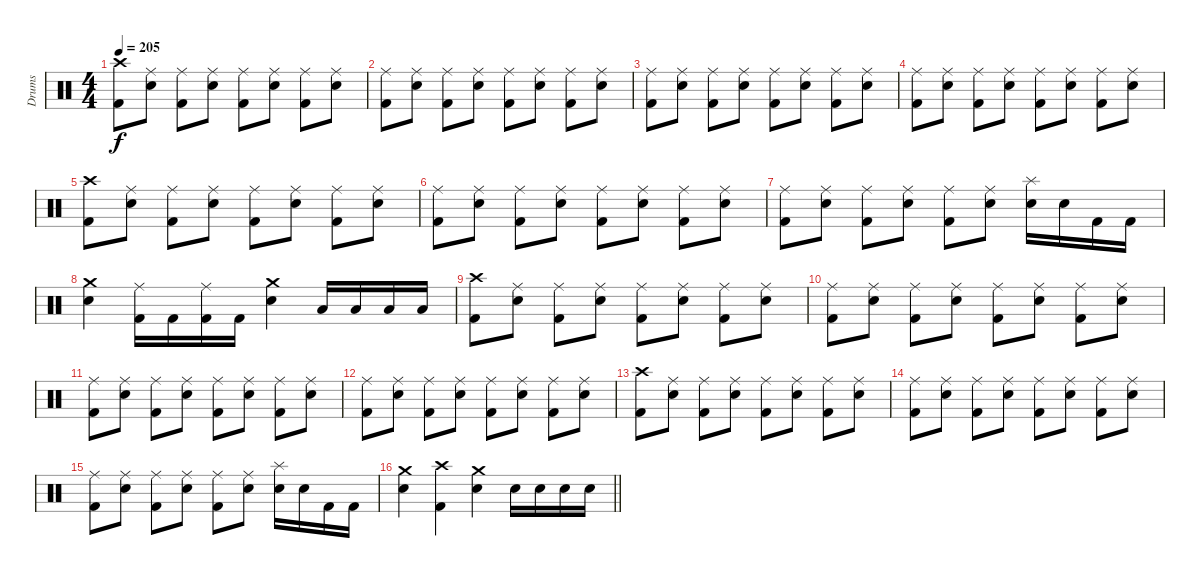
\track ("Drums" "Drums") {instrument percussion}
\staff {score}
\articulation defaults
\ts (4 4)
\tempo 205
\clef neutral
\ks c
("Crash high (hit)" "Kick (hit) 2").8{dy f} ("Ride (middle)" "Electric Snare (hit)").8 ("Ride (middle)" "Kick (hit) 2").8 ("Ride (middle)" "Electric Snare (hit)").8 ("Ride (middle)" "Kick (hit) 2").8 ("Ride (middle)" "Electric Snare (hit)").8 ("Ride (middle)" "Kick (hit) 2").8 ("Ride (middle)" "Electric Snare (hit)").8 |
("Ride (middle)" "Kick (hit) 2").8 ("Ride (middle)" "Electric Snare (hit)").8 ("Ride (middle)" "Kick (hit) 2").8 ("Ride (middle)" "Electric Snare (hit)").8 ("Ride (middle)" "Kick (hit) 2").8 ("Ride (middle)" "Electric Snare (hit)").8 ("Ride (middle)" "Kick (hit) 2").8 ("Ride (middle)" "Electric Snare (hit)").8 |
("Ride (middle)" "Kick (hit) 2").8 ("Ride (middle)" "Electric Snare (hit)").8 ("Ride (middle)" "Kick (hit) 2").8 ("Ride (middle)" "Electric Snare (hit)").8 ("Ride (middle)" "Kick (hit) 2").8 ("Ride (middle)" "Electric Snare (hit)").8 ("Ride (middle)" "Kick (hit) 2").8 ("Ride (middle)" "Electric Snare (hit)").8 |
("Ride (middle)" "Kick (hit) 2").8 ("Ride (middle)" "Electric Snare (hit)").8 ("Ride (middle)" "Kick (hit) 2").8 ("Ride (middle)" "Electric Snare (hit)").8 ("Ride (middle)" "Kick (hit) 2").8 ("Ride (middle)" "Electric Snare (hit)").8 ("Ride (middle)" "Kick (hit) 2").8 ("Ride (middle)" "Electric Snare (hit)").8 |
("Crash high (hit)" "Kick (hit) 2").8 ("Ride (middle)" "Electric Snare (hit)").8 ("Ride (middle)" "Kick (hit) 2").8 ("Ride (middle)" "Electric Snare (hit)").8 ("Ride (middle)" "Kick (hit) 2").8 ("Ride (middle)" "Electric Snare (hit)").8 ("Ride (middle)" "Kick (hit) 2").8 ("Ride (middle)" "Electric Snare (hit)").8 |
("Ride (middle)" "Kick (hit) 2").8 ("Ride (middle)" "Electric Snare (hit)").8 ("Ride (middle)" "Kick (hit) 2").8 ("Ride (middle)" "Electric Snare (hit)").8 ("Ride (middle)" "Kick (hit) 2").8 ("Ride (middle)" "Electric Snare (hit)").8 ("Ride (middle)" "Kick (hit) 2").8 ("Ride (middle)" "Electric Snare (hit)").8 |
("Ride (middle)" "Kick (hit) 2").8 ("Ride (middle)" "Electric Snare (hit)").8 ("Ride (middle)" "Kick (hit) 2").8 ("Ride (middle)" "Electric Snare (hit)").8 ("Ride (middle)" "Kick (hit) 2").8 ("Ride (middle)" "Electric Snare (hit)").8 ("Splash (hit)" "Electric Snare (hit)").16 "Electric Snare (hit)".16 "Kick (hit) 2".16 "Kick (hit) 2".16 |
("Crash medium (hit)" "Electric Snare (hit)").4 ("Ride (middle)" "Kick (hit) 2").16 "Kick (hit) 2".16 ("Ride (middle)" "Kick (hit) 2").16 "Kick (hit) 2".16 ("Crash medium (hit)" "Electric Snare (hit)").4 "Low Tom (hit)".16 "Low Tom (hit)".16 "Low Tom (hit)".16 "Low Tom (hit)".16 |
("Crash high (hit)" "Kick (hit) 2").8 ("Ride (middle)" "Electric Snare (hit)").8 ("Ride (middle)" "Kick (hit) 2").8 ("Ride (middle)" "Electric Snare (hit)").8 ("Ride (middle)" "Kick (hit) 2").8 ("Ride (middle)" "Electric Snare (hit)").8 ("Ride (middle)" "Kick (hit) 2").8 ("Ride (middle)" "Electric Snare (hit)").8 |
("Ride (middle)" "Kick (hit) 2").8 ("Ride (middle)" "Electric Snare (hit)").8 ("Ride (middle)" "Kick (hit) 2").8 ("Ride (middle)" "Electric Snare (hit)").8 ("Ride (middle)" "Kick (hit) 2").8 ("Ride (middle)" "Electric Snare (hit)").8 ("Ride (middle)" "Kick (hit) 2").8 ("Ride (middle)" "Electric Snare (hit)").8 |
("Ride (middle)" "Kick (hit) 2").8 ("Ride (middle)" "Electric Snare (hit)").8 ("Ride (middle)" "Kick (hit) 2").8 ("Ride (middle)" "Electric Snare (hit)").8 ("Ride (middle)" "Kick (hit) 2").8 ("Ride (middle)" "Electric Snare (hit)").8 ("Ride (middle)" "Kick (hit) 2").8 ("Ride (middle)" "Electric Snare (hit)").8 |
("Ride (middle)" "Kick (hit) 2").8 ("Ride (middle)" "Electric Snare (hit)").8 ("Ride (middle)" "Kick (hit) 2").8 ("Ride (middle)" "Electric Snare (hit)").8 ("Ride (middle)" "Kick (hit) 2").8 ("Ride (middle)" "Electric Snare (hit)").8 ("Ride (middle)" "Kick (hit) 2").8 ("Ride (middle)" "Electric Snare (hit)").8 |
("Crash high (hit)" "Kick (hit) 2").8 ("Ride (middle)" "Electric Snare (hit)").8 ("Ride (middle)" "Kick (hit) 2").8 ("Ride (middle)" "Electric Snare (hit)").8 ("Ride (middle)" "Kick (hit) 2").8 ("Ride (middle)" "Electric Snare (hit)").8 ("Ride (middle)" "Kick (hit) 2").8 ("Ride (middle)" "Electric Snare (hit)").8 |
("Ride (middle)" "Kick (hit) 2").8 ("Ride (middle)" "Electric Snare (hit)").8 ("Ride (middle)" "Kick (hit) 2").8 ("Ride (middle)" "Electric Snare (hit)").8 ("Ride (middle)" "Kick (hit) 2").8 ("Ride (middle)" "Electric Snare (hit)").8 ("Ride (middle)" "Kick (hit) 2").8 ("Ride (middle)" "Electric Snare (hit)").8 |
("Ride (middle)" "Kick (hit) 2").8 ("Ride (middle)" "Electric Snare (hit)").8 ("Ride (middle)" "Kick (hit) 2").8 ("Ride (middle)" "Electric Snare (hit)").8 ("Ride (middle)" "Kick (hit) 2").8 ("Ride (middle)" "Electric Snare (hit)").8 ("Splash (hit)" "Electric Snare (hit)").16 "Electric Snare (hit)".16 "Kick (hit) 2".16 "Kick (hit) 2".16 |
\barLineRight lightlight
("Crash medium (hit)" "Electric Snare (hit)").4 ("Crash high (hit)" "Kick (hit) 2").4 ("Crash medium (hit)" "Electric Snare (hit)").4 "Electric Snare (hit)".16 "Electric Snare (hit)".16 "Electric Snare (hit)".16 "Electric Snare (hit)".16
